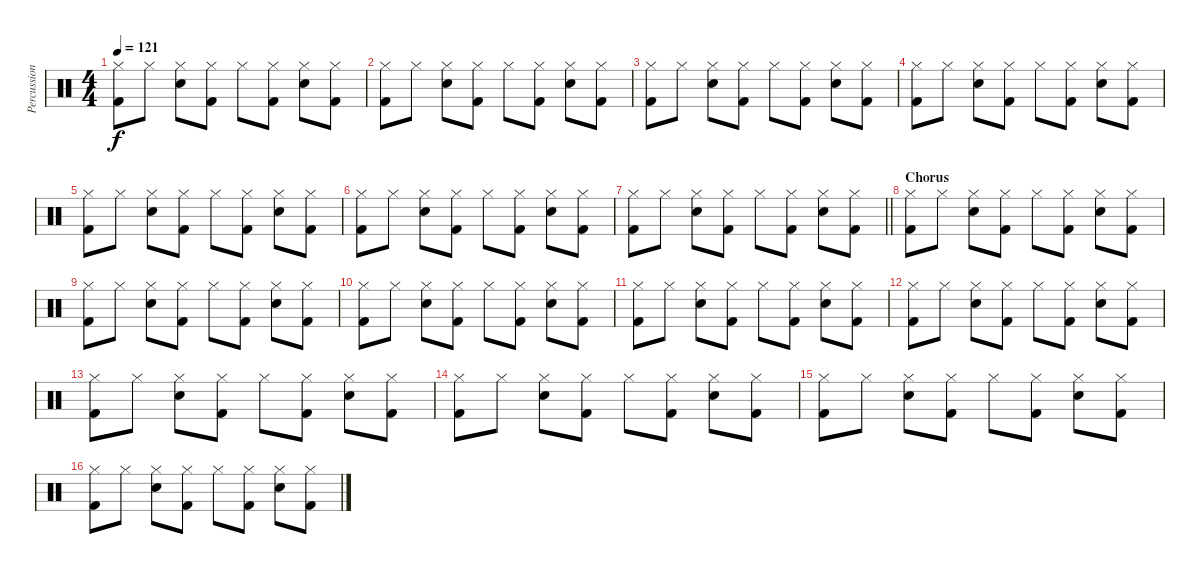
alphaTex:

\track ("Percussion" "Percussion") {instrument percussion}
\staff {score}
\articulation defaults
\ts (4 4)
\tempo 121
\clef neutral
\ks c
("Hi-Hat (closed)" "Kick (hit) 2").8{dy f} "Hi-Hat (closed)".8 ("Hi-Hat (closed)" "Snare (hit) 2").8 ("Hi-Hat (closed)" "Kick (hit) 2").8 "Hi-Hat (closed)".8 ("Hi-Hat (closed)" "Kick (hit) 2").8 ("Hi-Hat (closed)" "Snare (hit) 2").8 ("Hi-Hat (closed)" "Kick (hit) 2").8 |
("Hi-Hat (closed)" "Kick (hit) 2").8 "Hi-Hat (closed)".8 ("Hi-Hat (closed)" "Snare (hit) 2").8 ("Hi-Hat (closed)" "Kick (hit) 2").8 "Hi-Hat (closed)".8 ("Hi-Hat (closed)" "Kick (hit) 2").8 ("Hi-Hat (closed)" "Snare (hit) 2").8 ("Hi-Hat (closed)" "Kick (hit) 2").8 |
("Hi-Hat (closed)" "Kick (hit) 2").8 "Hi-Hat (closed)".8 ("Hi-Hat (closed)" "Snare (hit) 2").8 ("Hi-Hat (closed)" "Kick (hit) 2").8 "Hi-Hat (closed)".8 ("Hi-Hat (closed)" "Kick (hit) 2").8 ("Hi-Hat (closed)" "Snare (hit) 2").8 ("Hi-Hat (closed)" "Kick (hit) 2").8 |
("Hi-Hat (closed)" "Kick (hit) 2").8 "Hi-Hat (closed)".8 ("Hi-Hat (closed)" "Snare (hit) 2").8 ("Hi-Hat (closed)" "Kick (hit) 2").8 "Hi-Hat (closed)".8 ("Hi-Hat (closed)" "Kick (hit) 2").8 ("Hi-Hat (closed)" "Snare (hit) 2").8 ("Hi-Hat (closed)" "Kick (hit) 2").8 |
("Hi-Hat (closed)" "Kick (hit) 2").8 "Hi-Hat (closed)".8 ("Hi-Hat (closed)" "Snare (hit) 2").8 ("Hi-Hat (closed)" "Kick (hit) 2").8 "Hi-Hat (closed)".8 ("Hi-Hat (closed)" "Kick (hit) 2").8 ("Hi-Hat (closed)" "Snare (hit) 2").8 ("Hi-Hat (closed)" "Kick (hit) 2").8 |
("Hi-Hat (closed)" "Kick (hit) 2").8 "Hi-Hat (closed)".8 ("Hi-Hat (closed)" "Snare (hit) 2").8 ("Hi-Hat (closed)" "Kick (hit) 2").8 "Hi-Hat (closed)".8 ("Hi-Hat (closed)" "Kick (hit) 2").8 ("Hi-Hat (closed)" "Snare (hit) 2").8 ("Hi-Hat (closed)" "Kick (hit) 2").8 |
\barLineRight lightlight
("Hi-Hat (closed)" "Kick (hit) 2").8 "Hi-Hat (closed)".8 ("Hi-Hat (closed)" "Snare (hit) 2").8 ("Hi-Hat (closed)" "Kick (hit) 2").8 "Hi-Hat (closed)".8 ("Hi-Hat (closed)" "Kick (hit) 2").8 ("Hi-Hat (closed)" "Snare (hit) 2").8 ("Hi-Hat (closed)" "Kick (hit) 2").8 |
\section ("" "Chorus")
("Hi-Hat (closed)" "Kick (hit) 2").8 "Hi-Hat (closed)".8 ("Hi-Hat (closed)" "Snare (hit) 2").8 ("Hi-Hat (closed)" "Kick (hit) 2").8 "Hi-Hat (closed)".8 ("Hi-Hat (closed)" "Kick (hit) 2").8 ("Hi-Hat (closed)" "Snare (hit) 2").8 ("Hi-Hat (closed)" "Kick (hit) 2").8 |
("Hi-Hat (closed)" "Kick (hit) 2").8 "Hi-Hat (closed)".8 ("Hi-Hat (closed)" "Snare (hit) 2").8 ("Hi-Hat (closed)" "Kick (hit) 2").8 "Hi-Hat (closed)".8 ("Hi-Hat (closed)" "Kick (hit) 2").8 ("Hi-Hat (closed)" "Snare (hit) 2").8 ("Hi-Hat (closed)" "Kick (hit) 2").8 |
("Hi-Hat (closed)" "Kick (hit) 2").8 "Hi-Hat (closed)".8 ("Hi-Hat (closed)" "Snare (hit) 2").8 ("Hi-Hat (closed)" "Kick (hit) 2").8 "Hi-Hat (closed)".8 ("Hi-Hat (closed)" "Kick (hit) 2").8 ("Hi-Hat (closed)" "Snare (hit) 2").8 ("Hi-Hat (closed)" "Kick (hit) 2").8 |
("Hi-Hat (closed)" "Kick (hit) 2").8 "Hi-Hat (closed)".8 ("Hi-Hat (closed)" "Snare (hit) 2").8 ("Hi-Hat (closed)" "Kick (hit) 2").8 "Hi-Hat (closed)".8 ("Hi-Hat (closed)" "Kick (hit) 2").8 ("Hi-Hat (closed)" "Snare (hit) 2").8 ("Hi-Hat (closed)" "Kick (hit) 2").8 |
("Hi-Hat (closed)" "Kick (hit) 2").8 "Hi-Hat (closed)".8 ("Hi-Hat (closed)" "Snare (hit) 2").8 ("Hi-Hat (closed)" "Kick (hit) 2").8 "Hi-Hat (closed)".8 ("Hi-Hat (closed)" "Kick (hit) 2").8 ("Hi-Hat (closed)" "Snare (hit) 2").8 ("Hi-Hat (closed)" "Kick (hit) 2").8 |
("Hi-Hat (closed)" "Kick (hit) 2").8 "Hi-Hat (closed)".8 ("Hi-Hat (closed)" "Snare (hit) 2").8 ("Hi-Hat (closed)" "Kick (hit) 2").8 "Hi-Hat (closed)".8 ("Hi-Hat (closed)" "Kick (hit) 2").8 ("Hi-Hat (closed)" "Snare (hit) 2").8 ("Hi-Hat (closed)" "Kick (hit) 2").8 |
("Hi-Hat (closed)" "Kick (hit) 2").8 "Hi-Hat (closed)".8 ("Hi-Hat (closed)" "Snare (hit) 2").8 ("Hi-Hat (closed)" "Kick (hit) 2").8 "Hi-Hat (closed)".8 ("Hi-Hat (closed)" "Kick (hit) 2").8 ("Hi-Hat (closed)" "Snare (hit) 2").8 ("Hi-Hat (closed)" "Kick (hit) 2").8 |
("Hi-Hat (closed)" "Kick (hit) 2").8 "Hi-Hat (closed)".8 ("Hi-Hat (closed)" "Snare (hit) 2").8 ("Hi-Hat (closed)" "Kick (hit) 2").8 "Hi-Hat (closed)".8 ("Hi-Hat (closed)" "Kick (hit) 2").8 ("Hi-Hat (closed)" "Snare (hit) 2").8 ("Hi-Hat (closed)" "Kick (hit) 2").8 |
("Hi-Hat (closed)" "Kick (hit) 2").8 "Hi-Hat (closed)".8 ("Hi-Hat (closed)" "Snare (hit) 2").8 ("Hi-Hat (closed)" "Kick (hit) 2").8 "Hi-Hat (closed)".8 ("Hi-Hat (closed)" "Kick (hit) 2").8 ("Hi-Hat (closed)" "Snare (hit) 2").8 ("Hi-Hat (closed)" "Kick (hit) 2").8
